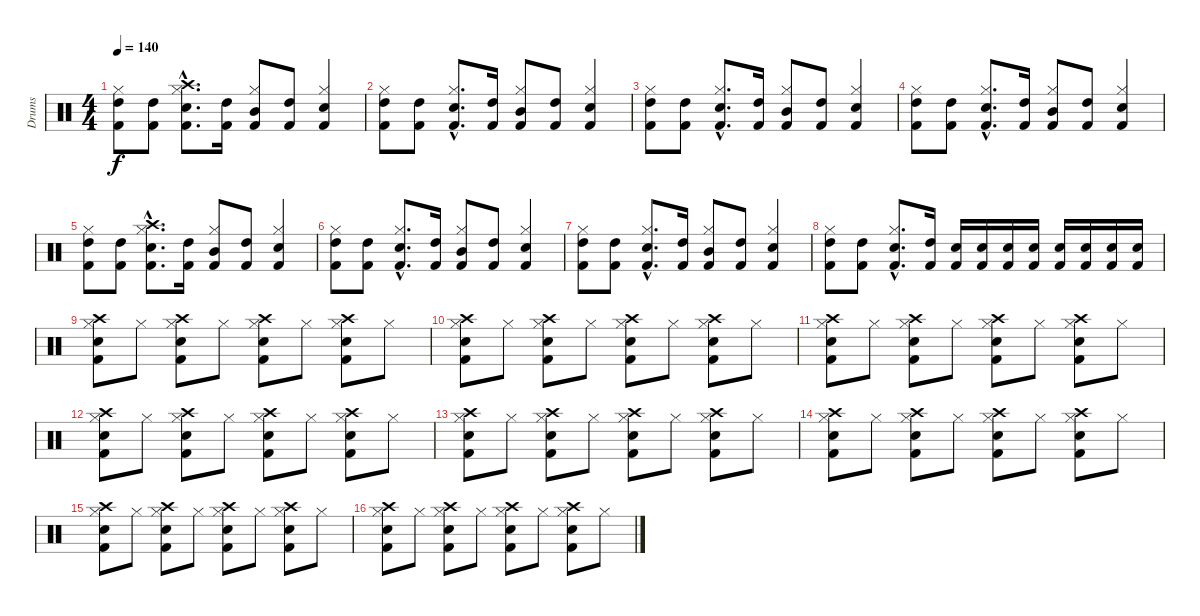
\track ("Drums" "Drums") {instrument percussion}
\staff {score}
\articulation defaults
\ts (4 4)
\tempo 140
\clef neutral
\ks c
("Kick (hit) 2" "High Tom (hit)" "Hi-Hat (closed)").8{dy f} ("Kick (hit) 2" "High Tom (hit)").8 ("Kick (hit) 2"{hac} "Electric Snare (hit)"{hac} "Crash high (hit)"{hac} "Hi-Hat (closed)"{hac}).8{d} ("Kick (hit) 2" "High Tom (hit)").16 ("Kick (hit) 2" "Mid Tom (hit)" "Hi-Hat (closed)").8 ("Kick (hit) 2" "High Tom (hit)").8 ("Kick (hit) 2" "Electric Snare (hit)" "Hi-Hat (closed)").4 |
("Kick (hit) 2" "High Tom (hit)" "Hi-Hat (closed)").8 ("Kick (hit) 2" "High Tom (hit)").8 ("Kick (hit) 2"{hac} "Electric Snare (hit)"{hac} "Hi-Hat (closed)"{hac}).8{d} ("Kick (hit) 2" "High Tom (hit)").16 ("Kick (hit) 2" "Mid Tom (hit)" "Hi-Hat (closed)").8 ("Kick (hit) 2" "High Tom (hit)").8 ("Kick (hit) 2" "Electric Snare (hit)" "Hi-Hat (closed)").4 |
("Kick (hit) 2" "High Tom (hit)" "Hi-Hat (closed)").8 ("Kick (hit) 2" "High Tom (hit)").8 ("Kick (hit) 2"{hac} "Electric Snare (hit)"{hac} "Hi-Hat (closed)"{hac}).8{d} ("Kick (hit) 2" "High Tom (hit)").16 ("Kick (hit) 2" "Mid Tom (hit)" "Hi-Hat (closed)").8 ("Kick (hit) 2" "High Tom (hit)").8 ("Kick (hit) 2" "Electric Snare (hit)" "Hi-Hat (closed)").4 |
("Kick (hit) 2" "High Tom (hit)" "Hi-Hat (closed)").8 ("Kick (hit) 2" "High Tom (hit)").8 ("Kick (hit) 2"{hac} "Electric Snare (hit)"{hac} "Hi-Hat (closed)"{hac}).8{d} ("Kick (hit) 2" "High Tom (hit)").16 ("Kick (hit) 2" "Mid Tom (hit)" "Hi-Hat (closed)").8 ("Kick (hit) 2" "High Tom (hit)").8 ("Kick (hit) 2" "Electric Snare (hit)" "Hi-Hat (closed)").4 |
("Kick (hit) 2" "High Tom (hit)" "Hi-Hat (closed)").8 ("Kick (hit) 2" "High Tom (hit)").8 ("Kick (hit) 2"{hac} "Electric Snare (hit)"{hac} "Crash high (hit)"{hac} "Hi-Hat (closed)"{hac}).8{d} ("Kick (hit) 2" "High Tom (hit)").16 ("Kick (hit) 2" "Mid Tom (hit)" "Hi-Hat (closed)").8 ("Kick (hit) 2" "High Tom (hit)").8 ("Kick (hit) 2" "Electric Snare (hit)" "Hi-Hat (closed)").4 |
("Kick (hit) 2" "High Tom (hit)" "Hi-Hat (closed)").8 ("Kick (hit) 2" "High Tom (hit)").8 ("Kick (hit) 2"{hac} "Electric Snare (hit)"{hac} "Hi-Hat (closed)"{hac}).8{d} ("Kick (hit) 2" "High Tom (hit)").16 ("Kick (hit) 2" "Mid Tom (hit)" "Hi-Hat (closed)").8 ("Kick (hit) 2" "High Tom (hit)").8 ("Kick (hit) 2" "Electric Snare (hit)" "Hi-Hat (closed)").4 |
("Kick (hit) 2" "High Tom (hit)" "Hi-Hat (closed)").8 ("Kick (hit) 2" "High Tom (hit)").8 ("Kick (hit) 2"{hac} "Electric Snare (hit)"{hac} "Hi-Hat (closed)"{hac}).8{d} ("Kick (hit) 2" "High Tom (hit)").16 ("Kick (hit) 2" "Mid Tom (hit)" "Hi-Hat (closed)").8 ("Kick (hit) 2" "High Tom (hit)").8 ("Kick (hit) 2" "Electric Snare (hit)" "Hi-Hat (closed)").4 |
("Kick (hit) 2" "High Tom (hit)" "Hi-Hat (closed)").8 ("Kick (hit) 2" "High Tom (hit)").8 ("Kick (hit) 2"{hac} "Electric Snare (hit)"{hac} "Hi-Hat (closed)"{hac}).8{d} ("Kick (hit) 2" "High Tom (hit)").16 ("Kick (hit) 2" "Electric Snare (hit)").16 ("Kick (hit) 2" "Electric Snare (hit)").16 ("Kick (hit) 2" "Electric Snare (hit)").16 ("Kick (hit) 2" "Electric Snare (hit)").16 ("Kick (hit) 2" "Electric Snare (hit)").16 ("Kick (hit) 2" "Electric Snare (hit)").16 ("Kick (hit) 2" "Electric Snare (hit)").16 ("Kick (hit) 2" "Electric Snare (hit)").16 |
("Hi-Hat (closed)" "Electric Snare (hit)" "Kick (hit) 2" "Crash high (hit)").8 "Hi-Hat (closed)".8 ("Hi-Hat (closed)" "Electric Snare (hit)" "Kick (hit) 2" "Crash high (hit)").8 "Hi-Hat (closed)".8 ("Hi-Hat (closed)" "Electric Snare (hit)" "Kick (hit) 2" "Crash high (hit)").8 "Hi-Hat (closed)".8 ("Hi-Hat (closed)" "Electric Snare (hit)" "Kick (hit) 2" "Crash high (hit)").8 "Hi-Hat (closed)".8 |
("Hi-Hat (closed)" "Electric Snare (hit)" "Kick (hit) 2" "Crash high (hit)").8 "Hi-Hat (closed)".8 ("Hi-Hat (closed)" "Electric Snare (hit)" "Kick (hit) 2" "Crash high (hit)").8 "Hi-Hat (closed)".8 ("Hi-Hat (closed)" "Electric Snare (hit)" "Kick (hit) 2" "Crash high (hit)").8 "Hi-Hat (closed)".8 ("Hi-Hat (closed)" "Electric Snare (hit)" "Kick (hit) 2" "Crash high (hit)").8 "Hi-Hat (closed)".8 |
("Hi-Hat (closed)" "Electric Snare (hit)" "Kick (hit) 2" "Crash high (hit)").8 "Hi-Hat (closed)".8 ("Hi-Hat (closed)" "Electric Snare (hit)" "Kick (hit) 2" "Crash high (hit)").8 "Hi-Hat (closed)".8 ("Hi-Hat (closed)" "Electric Snare (hit)" "Kick (hit) 2" "Crash high (hit)").8 "Hi-Hat (closed)".8 ("Hi-Hat (closed)" "Electric Snare (hit)" "Kick (hit) 2" "Crash high (hit)").8 "Hi-Hat (closed)".8 |
("Hi-Hat (closed)" "Electric Snare (hit)" "Kick (hit) 2" "Crash high (hit)").8 "Hi-Hat (closed)".8 ("Hi-Hat (closed)" "Electric Snare (hit)" "Kick (hit) 2" "Crash high (hit)").8 "Hi-Hat (closed)".8 ("Hi-Hat (closed)" "Electric Snare (hit)" "Kick (hit) 2" "Crash high (hit)").8 "Hi-Hat (closed)".8 ("Hi-Hat (closed)" "Electric Snare (hit)" "Kick (hit) 2" "Crash high (hit)").8 "Hi-Hat (closed)".8 |
("Hi-Hat (closed)" "Electric Snare (hit)" "Kick (hit) 2" "Crash high (hit)").8 "Hi-Hat (closed)".8 ("Hi-Hat (closed)" "Electric Snare (hit)" "Kick (hit) 2" "Crash high (hit)").8 "Hi-Hat (closed)".8 ("Hi-Hat (closed)" "Electric Snare (hit)" "Kick (hit) 2" "Crash high (hit)").8 "Hi-Hat (closed)".8 ("Hi-Hat (closed)" "Electric Snare (hit)" "Kick (hit) 2" "Crash high (hit)").8 "Hi-Hat (closed)".8 |
("Hi-Hat (closed)" "Electric Snare (hit)" "Kick (hit) 2" "Crash high (hit)").8 "Hi-Hat (closed)".8 ("Hi-Hat (closed)" "Electric Snare (hit)" "Kick (hit) 2" "Crash high (hit)").8 "Hi-Hat (closed)".8 ("Hi-Hat (closed)" "Electric Snare (hit)" "Kick (hit) 2" "Crash high (hit)").8 "Hi-Hat (closed)".8 ("Hi-Hat (closed)" "Electric Snare (hit)" "Kick (hit) 2" "Crash high (hit)").8 "Hi-Hat (closed)".8 |
("Hi-Hat (closed)" "Electric Snare (hit)" "Kick (hit) 2" "Crash high (hit)").8 "Hi-Hat (closed)".8 ("Hi-Hat (closed)" "Electric Snare (hit)" "Kick (hit) 2" "Crash high (hit)").8 "Hi-Hat (closed)".8 ("Hi-Hat (closed)" "Electric Snare (hit)" "Kick (hit) 2" "Crash high (hit)").8 "Hi-Hat (closed)".8 ("Hi-Hat (closed)" "Electric Snare (hit)" "Kick (hit) 2" "Crash high (hit)").8 "Hi-Hat (closed)".8 |
("Hi-Hat (closed)" "Electric Snare (hit)" "Kick (hit) 2" "Crash high (hit)").8 "Hi-Hat (closed)".8 ("Hi-Hat (closed)" "Electric Snare (hit)" "Kick (hit) 2" "Crash high (hit)").8 "Hi-Hat (closed)".8 ("Hi-Hat (closed)" "Electric Snare (hit)" "Kick (hit) 2" "Crash high (hit)").8 "Hi-Hat (closed)".8 ("Hi-Hat (closed)" "Electric Snare (hit)" "Kick (hit) 2" "Crash high (hit)").8 "Hi-Hat (closed)".8
